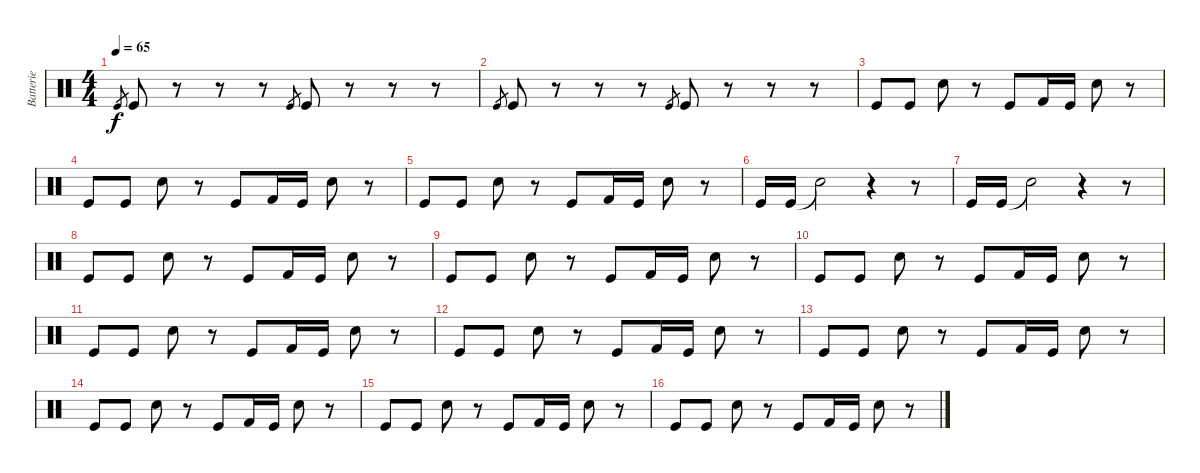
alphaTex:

\track ("Batterie" "Batterie") {instrument percussion}
\staff {score}
\articulation defaults
\ts (4 4)
\tempo 65
\clef neutral
\ks c "Kick (hit)".8{gr dy f} "Kick (hit)".8
r.8 r.8 r.8 "Kick (hit)".8{gr} "Kick (hit)".8 r.8 r.8 r.8 |
"Kick (hit)".8{gr} "Kick (hit)".8 r.8 r.8 r.8 "Kick (hit)".8{gr} "Kick (hit)".8 r.8 r.8 r.8 |
"Kick (hit)".8 "Kick (hit)".8 "Electric Snare (hit)".8 r.8 "Kick (hit)".8 "Kick (hit) 2".16 "Kick (hit)".16 "Electric Snare (hit)".8 r.8 |
"Kick (hit)".8 "Kick (hit)".8 "Electric Snare (hit)".8 r.8 "Kick (hit)".8 "Kick (hit) 2".16 "Kick (hit)".16 "Electric Snare (hit)".8 r.8 |
"Kick (hit)".8 "Kick (hit)".8 "Electric Snare (hit)".8 r.8 "Kick (hit)".8 "Kick (hit) 2".16 "Kick (hit)".16 "Electric Snare (hit)".8 r.8 |
"Kick (hit)".16 "Kick (hit)".16 "Snare (hit)"{t}.2 r.4 r.8 |
"Kick (hit)".16 "Kick (hit)".16 "Snare (hit)"{t}.2 r.4 r.8 |
"Kick (hit)".8 "Kick (hit)".8 "Electric Snare (hit)".8 r.8 "Kick (hit)".8 "Kick (hit) 2".16 "Kick (hit)".16 "Electric Snare (hit)".8 r.8 |
"Kick (hit)".8 "Kick (hit)".8 "Electric Snare (hit)".8 r.8 "Kick (hit)".8 "Kick (hit) 2".16 "Kick (hit)".16 "Electric Snare (hit)".8 r.8 |
"Kick (hit)".8 "Kick (hit)".8 "Electric Snare (hit)".8 r.8 "Kick (hit)".8 "Kick (hit) 2".16 "Kick (hit)".16 "Electric Snare (hit)".8 r.8 |
"Kick (hit)".8 "Kick (hit)".8 "Electric Snare (hit)".8 r.8 "Kick (hit)".8 "Kick (hit) 2".16 "Kick (hit)".16 "Electric Snare (hit)".8 r.8 |
"Kick (hit)".8 "Kick (hit)".8 "Electric Snare (hit)".8 r.8 "Kick (hit)".8 "Kick (hit) 2".16 "Kick (hit)".16 "Electric Snare (hit)".8 r.8 |
"Kick (hit)".8 "Kick (hit)".8 "Electric Snare (hit)".8 r.8 "Kick (hit)".8 "Kick (hit) 2".16 "Kick (hit)".16 "Electric Snare (hit)".8 r.8 |
"Kick (hit)".8 "Kick (hit)".8 "Electric Snare (hit)".8 r.8 "Kick (hit)".8 "Kick (hit) 2".16 "Kick (hit)".16 "Electric Snare (hit)".8 r.8 |
"Kick (hit)".8 "Kick (hit)".8 "Electric Snare (hit)".8 r.8 "Kick (hit)".8 "Kick (hit) 2".16 "Kick (hit)".16 "Electric Snare (hit)".8 r.8 |
"Kick (hit)".8 "Kick (hit)".8 "Electric Snare (hit)".8 r.8 "Kick (hit)".8 "Kick (hit) 2".16 "Kick (hit)".16 "Electric Snare (hit)".8 r.8
